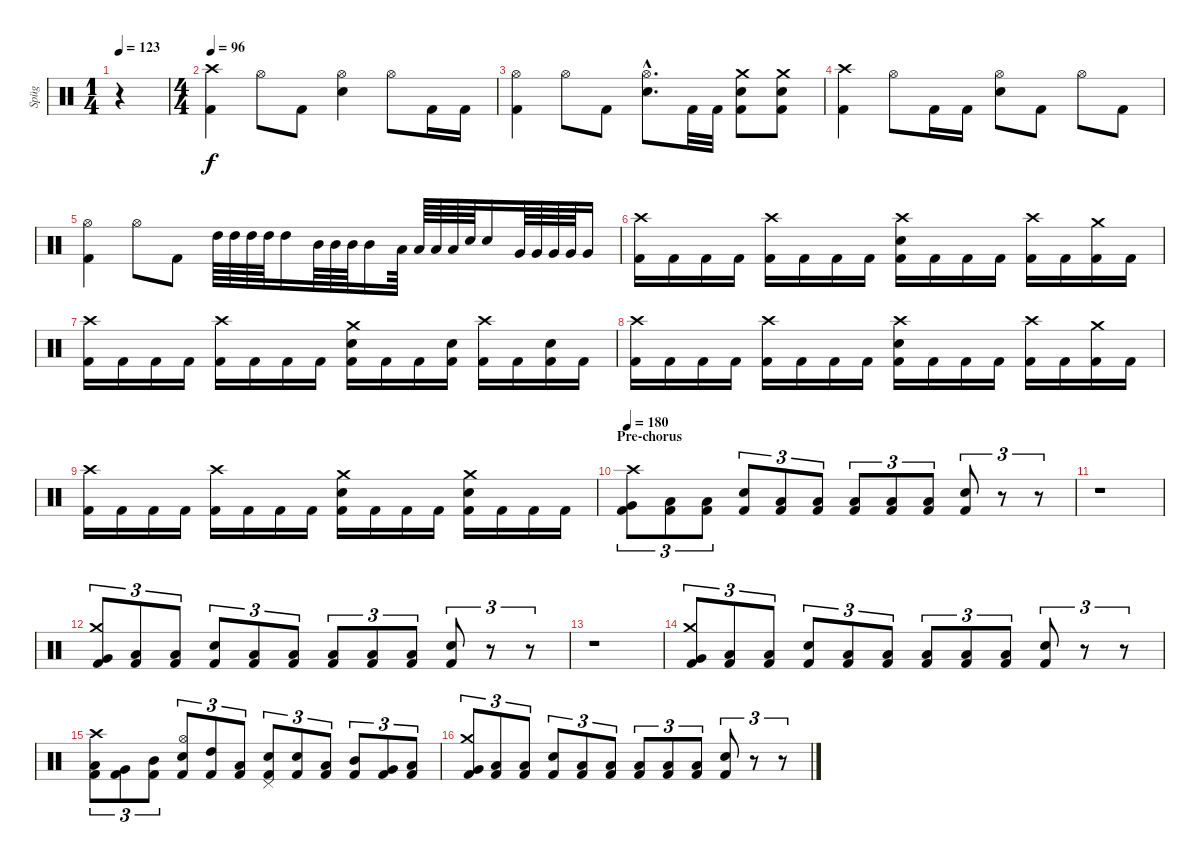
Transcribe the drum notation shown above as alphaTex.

\track ("Spüg" "Spüg") {instrument percussion}
\staff {score}
\articulation defaults
\ts (1 4)
\tempo 123
\clef neutral
\ks c
r.4{dy f} |
\ts (4 4)
\tempo 96
("Crash high (hit)" "Kick (hit) 2").4 "Hi-Hat (open)".8 "Kick (hit) 2".8 ("Hi-Hat (open)" "Electric Snare (hit)").4 "Hi-Hat (open)".8 "Kick (hit) 2".16 "Kick (hit) 2".16 |
("Hi-Hat (open)" "Kick (hit) 2").4 "Hi-Hat (open)".8 "Kick (hit) 2".8 ("Hi-Hat (open)"{hac} "Electric Snare (hit)"{hac}).8{d} "Kick (hit) 2".32 "Kick (hit) 2".32 ("Crash medium (hit)" "Electric Snare (hit)" "Kick (hit) 2").8 ("Crash medium (hit)" "Electric Snare (hit)" "Kick (hit) 2").8 |
("Crash high (hit)" "Kick (hit) 2").4 "Hi-Hat (open)".8 "Kick (hit) 2".16 "Kick (hit) 2".16 ("Hi-Hat (open)" "Electric Snare (hit)").8 "Kick (hit) 2".8 "Hi-Hat (open)".8 "Kick (hit) 2".8 |
("Hi-Hat (open)" "Kick (hit) 2").4 "Hi-Hat (open)".8 "Kick (hit) 2".8 "High Tom (hit)".64 "High Tom (hit)".64 "High Tom (hit)".64 "High Tom (hit)".64 "High Tom (hit)".16 "Mid Tom (hit)".64 "Mid Tom (hit)".64 "Mid Tom (hit)".64 "Mid Tom (hit)".16 "Low Tom (hit)".64 "Low Tom (hit)".64 "Low Tom (hit)".64 "Low Tom (hit)".64 "Electric Snare (hit)".64 "Electric Snare (hit)".16 "Very Low Tom (hit)".64 "Very Low Tom (hit)".64 "Very Low Tom (hit)".64 "Very Low Tom (hit)".64 "Very Low Tom (hit)".16 |
("Crash high (hit)" "Kick (hit) 2").16 "Kick (hit) 2".16 "Kick (hit) 2".16 "Kick (hit) 2".16 ("Crash high (hit)" "Kick (hit) 2").16 "Kick (hit) 2".16 "Kick (hit) 2".16 "Kick (hit) 2".16 ("Crash high (hit)" "Electric Snare (hit)" "Kick (hit) 2").16 "Kick (hit) 2".16 "Kick (hit) 2".16 "Kick (hit) 2".16 ("Crash high (hit)" "Kick (hit) 2").16 "Kick (hit) 2".16 ("Crash medium (hit)" "Kick (hit) 2").16 "Kick (hit) 2".16 |
("Crash high (hit)" "Kick (hit) 2").16 "Kick (hit) 2".16 "Kick (hit) 2".16 "Kick (hit) 2".16 ("Crash high (hit)" "Kick (hit) 2").16 "Kick (hit) 2".16 "Kick (hit) 2".16 "Kick (hit) 2".16 ("Crash medium (hit)" "Electric Snare (hit)" "Kick (hit) 2").16 "Kick (hit) 2".16 "Kick (hit) 2".16 ("Electric Snare (hit)" "Kick (hit) 2").16 ("Crash high (hit)" "Kick (hit) 2").16 "Kick (hit) 2".16 ("Electric Snare (hit)" "Kick (hit) 2").16 "Kick (hit) 2".16 |
("Crash high (hit)" "Kick (hit) 2").16 "Kick (hit) 2".16 "Kick (hit) 2".16 "Kick (hit) 2".16 ("Crash high (hit)" "Kick (hit) 2").16 "Kick (hit) 2".16 "Kick (hit) 2".16 "Kick (hit) 2".16 ("Crash high (hit)" "Electric Snare (hit)" "Kick (hit) 2").16 "Kick (hit) 2".16 "Kick (hit) 2".16 "Kick (hit) 2".16 ("Crash high (hit)" "Kick (hit) 2").16 "Kick (hit) 2".16 ("Crash medium (hit)" "Kick (hit) 2").16 "Kick (hit) 2".16 |
("Crash high (hit)" "Kick (hit) 2").16 "Kick (hit) 2".16 "Kick (hit) 2".16 "Kick (hit) 2".16 ("Crash high (hit)" "Kick (hit) 2").16 "Kick (hit) 2".16 "Kick (hit) 2".16 "Kick (hit) 2".16 ("Crash medium (hit)" "Electric Snare (hit)" "Kick (hit) 2").16 "Kick (hit) 2".16 "Kick (hit) 2".16 "Kick (hit) 2".16 ("Crash medium (hit)" "Electric Snare (hit)" "Kick (hit) 2").16 "Kick (hit) 2".16 "Kick (hit) 2".16 "Kick (hit) 2".16 |
\section ("" "Pre-chorus")
\tempo 180
("Crash high (hit)" "Very Low Tom (hit)" "Kick (hit) 2").8{tu (3 2)} ("Low Floor Tom (hit)" "Kick (hit) 2").8{tu (3 2)} ("Low Floor Tom (hit)" "Kick (hit) 2").8{tu (3 2)} ("Electric Snare (hit)" "Kick (hit) 2").8{tu (3 2)} ("Low Floor Tom (hit)" "Kick (hit) 2").8{tu (3 2)} ("Low Floor Tom (hit)" "Kick (hit) 2").8{tu (3 2)} ("Low Floor Tom (hit)" "Kick (hit) 2").8{tu (3 2)} ("Low Floor Tom (hit)" "Kick (hit) 2").8{tu (3 2)} ("Low Floor Tom (hit)" "Kick (hit) 2").8{tu (3 2)} ("Electric Snare (hit)" "Kick (hit) 2").8{tu (3 2)} r.8{tu (3 2)} r.8{tu (3 2)} |
r.1 |
("Crash medium (hit)" "Very Low Tom (hit)" "Kick (hit) 2").8{tu (3 2)} ("Low Floor Tom (hit)" "Kick (hit) 2").8{tu (3 2)} ("Low Floor Tom (hit)" "Kick (hit) 2").8{tu (3 2)} ("Electric Snare (hit)" "Kick (hit) 2").8{tu (3 2)} ("Low Floor Tom (hit)" "Kick (hit) 2").8{tu (3 2)} ("Low Floor Tom (hit)" "Kick (hit) 2").8{tu (3 2)} ("Low Floor Tom (hit)" "Kick (hit) 2").8{tu (3 2)} ("Low Floor Tom (hit)" "Kick (hit) 2").8{tu (3 2)} ("Low Floor Tom (hit)" "Kick (hit) 2").8{tu (3 2)} ("Electric Snare (hit)" "Kick (hit) 2").8{tu (3 2)} r.8{tu (3 2)} r.8{tu (3 2)} |
r.1 |
("Crash medium (hit)" "Very Low Tom (hit)" "Kick (hit) 2").8{tu (3 2)} ("Low Floor Tom (hit)" "Kick (hit) 2").8{tu (3 2)} ("Low Floor Tom (hit)" "Kick (hit) 2").8{tu (3 2)} ("Electric Snare (hit)" "Kick (hit) 2").8{tu (3 2)} ("Low Floor Tom (hit)" "Kick (hit) 2").8{tu (3 2)} ("Low Floor Tom (hit)" "Kick (hit) 2").8{tu (3 2)} ("Low Floor Tom (hit)" "Kick (hit) 2").8{tu (3 2)} ("Low Floor Tom (hit)" "Kick (hit) 2").8{tu (3 2)} ("Low Floor Tom (hit)" "Kick (hit) 2").8{tu (3 2)} ("Electric Snare (hit)" "Kick (hit) 2").8{tu (3 2)} r.8{tu (3 2)} r.8{tu (3 2)} |
("Crash high (hit)" "Low Tom (hit)" "Kick (hit) 2").8{tu (3 2)} ("Very Low Tom (hit)" "Kick (hit) 2").8{tu (3 2)} ("Mid Tom (hit)" "Kick (hit) 2").8{tu (3 2)} ("Hi-Hat (open)" "Electric Snare (hit)" "Kick (hit) 2").8{tu (3 2)} ("High Tom (hit)" "Kick (hit) 2").8{tu (3 2)} ("Low Tom (hit)" "Kick (hit) 2").8{tu (3 2)} ("Pedal Hi-Hat (hit)" "Electric Snare (hit)" "Kick (hit) 2").8{tu (3 2)} ("Electric Snare (hit)" "Kick (hit) 2").8{tu (3 2)} ("Low Floor Tom (hit)" "Kick (hit) 2").8{tu (3 2)} ("Mid Tom (hit)" "Kick (hit) 2").8{tu (3 2)} ("Very Low Tom (hit)" "Kick (hit) 2").8{tu (3 2)} ("Low Floor Tom (hit)" "Kick (hit) 2").8{tu (3 2)} |
("Crash medium (hit)" "Very Low Tom (hit)" "Kick (hit) 2").8{tu (3 2)} ("Low Floor Tom (hit)" "Kick (hit) 2").8{tu (3 2)} ("Low Floor Tom (hit)" "Kick (hit) 2").8{tu (3 2)} ("Electric Snare (hit)" "Kick (hit) 2").8{tu (3 2)} ("Low Floor Tom (hit)" "Kick (hit) 2").8{tu (3 2)} ("Low Floor Tom (hit)" "Kick (hit) 2").8{tu (3 2)} ("Low Floor Tom (hit)" "Kick (hit) 2").8{tu (3 2)} ("Low Floor Tom (hit)" "Kick (hit) 2").8{tu (3 2)} ("Low Floor Tom (hit)" "Kick (hit) 2").8{tu (3 2)} ("Electric Snare (hit)" "Kick (hit) 2").8{tu (3 2)} r.8{tu (3 2)} r.8{tu (3 2)}
